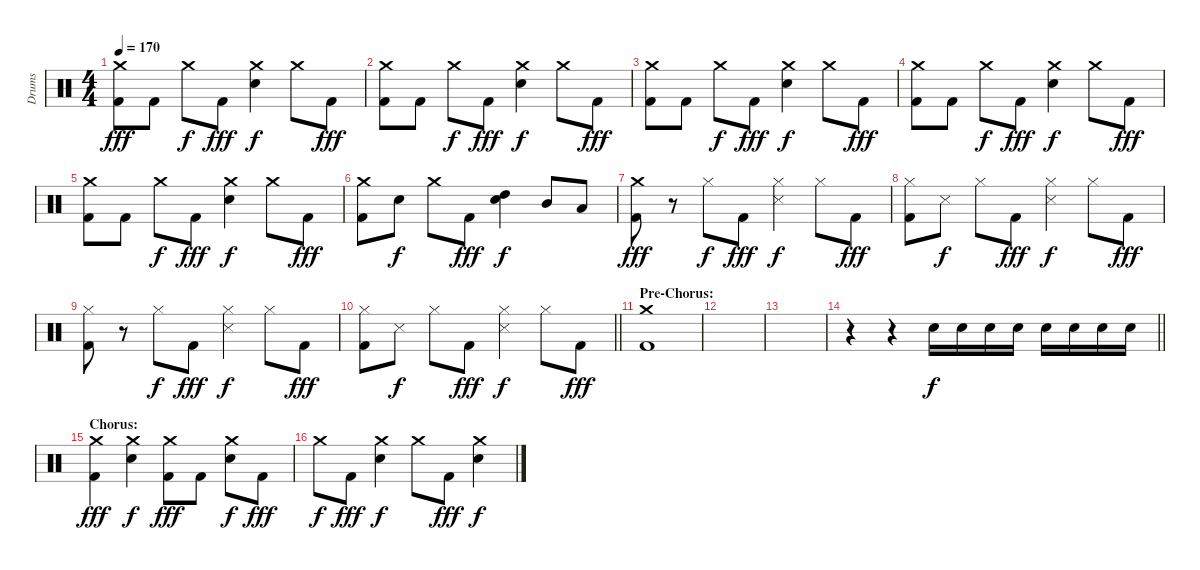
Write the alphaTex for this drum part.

\track ("Drums" "Drums") {instrument percussion}
\staff {score}
\articulation defaults
\ts (4 4)
\tempo 170
\clef neutral
\ks c
("Crash medium (hit)" "Kick (hit) 2").8{dy fff} "Kick (hit) 2".8 "Crash medium (hit)".8{dy f} "Kick (hit) 2".8{dy fff} ("Crash medium (hit)" "Electric Snare (hit)").4{dy f} "Crash medium (hit)".8 "Kick (hit) 2".8{dy fff} |
("Crash medium (hit)" "Kick (hit) 2").8 "Kick (hit) 2".8 "Crash medium (hit)".8{dy f} "Kick (hit) 2".8{dy fff} ("Crash medium (hit)" "Electric Snare (hit)").4{dy f} "Crash medium (hit)".8 "Kick (hit) 2".8{dy fff} |
("Crash medium (hit)" "Kick (hit) 2").8 "Kick (hit) 2".8 "Crash medium (hit)".8{dy f} "Kick (hit) 2".8{dy fff} ("Crash medium (hit)" "Electric Snare (hit)").4{dy f} "Crash medium (hit)".8 "Kick (hit) 2".8{dy fff} |
("Crash medium (hit)" "Kick (hit) 2").8 "Kick (hit) 2".8 "Crash medium (hit)".8{dy f} "Kick (hit) 2".8{dy fff} ("Crash medium (hit)" "Electric Snare (hit)").4{dy f} "Crash medium (hit)".8 "Kick (hit) 2".8{dy fff} |
("Crash medium (hit)" "Kick (hit) 2").8 "Kick (hit) 2".8 "Crash medium (hit)".8{dy f} "Kick (hit) 2".8{dy fff} ("Crash medium (hit)" "Electric Snare (hit)").4{dy f} "Crash medium (hit)".8 "Kick (hit) 2".8{dy fff} |
("Crash medium (hit)" "Kick (hit) 2").8 "Electric Snare (hit)".8{dy f} "Crash medium (hit)".8 "Kick (hit) 2".8{dy fff} ("High Tom (hit)" "Electric Snare (hit)").4{dy f} "Mid Tom (hit)".8 "Low Tom (hit)".8 |
("Crash medium (hit)" "Kick (hit) 2").8{dy fff} r.8 "Hi-Hat (closed)".8{dy f} "Kick (hit) 2".8{dy fff} ("Hi-Hat (closed)" "Snare (side stick) 3").4{dy f} "Hi-Hat (closed)".8 "Kick (hit) 2".8{dy fff} |
("Hi-Hat (closed)" "Kick (hit) 2").8 "Snare (side stick) 3".8{dy f} "Hi-Hat (closed)".8 "Kick (hit) 2".8{dy fff} ("Hi-Hat (closed)" "Snare (side stick) 3").4{dy f} "Hi-Hat (closed)".8 "Kick (hit) 2".8{dy fff} |
("Hi-Hat (closed)" "Kick (hit) 2").8 r.8 "Hi-Hat (closed)".8{dy f} "Kick (hit) 2".8{dy fff} ("Hi-Hat (closed)" "Snare (side stick) 3").4{dy f} "Hi-Hat (closed)".8 "Kick (hit) 2".8{dy fff} |
\barLineRight lightlight
("Hi-Hat (closed)" "Kick (hit) 2").8 "Snare (side stick) 3".8{dy f} "Hi-Hat (closed)".8 "Kick (hit) 2".8{dy fff} ("Hi-Hat (closed)" "Snare (side stick) 3").4{dy f} "Hi-Hat (closed)".8 "Kick (hit) 2".8{dy fff} |
\section ("" "Pre-Chorus:")
("Crash medium (hit)" "Kick (hit) 2").1 |
|
|
\barLineRight lightlight
r.4 r.4 "Electric Snare (hit)".16{dy f} "Electric Snare (hit)".16 "Electric Snare (hit)".16 "Electric Snare (hit)".16 "Electric Snare (hit)".16 "Electric Snare (hit)".16 "Electric Snare (hit)".16 "Electric Snare (hit)".16 |
\section ("" "Chorus:")
("Crash medium (hit)" "Kick (hit) 2").4{dy fff} ("Crash medium (hit)" "Electric Snare (hit)").4{dy f} ("Crash medium (hit)" "Kick (hit) 2").8{dy fff} "Kick (hit) 2".8 ("Crash medium (hit)" "Electric Snare (hit)").8{dy f} "Kick (hit) 2".8{dy fff} |
"Crash medium (hit)".8{dy f} "Kick (hit) 2".8{dy fff} ("Crash medium (hit)" "Electric Snare (hit)").4{dy f} "Crash medium (hit)".8 "Kick (hit) 2".8{dy fff} ("Crash medium (hit)" "Electric Snare (hit)").4{dy f}
